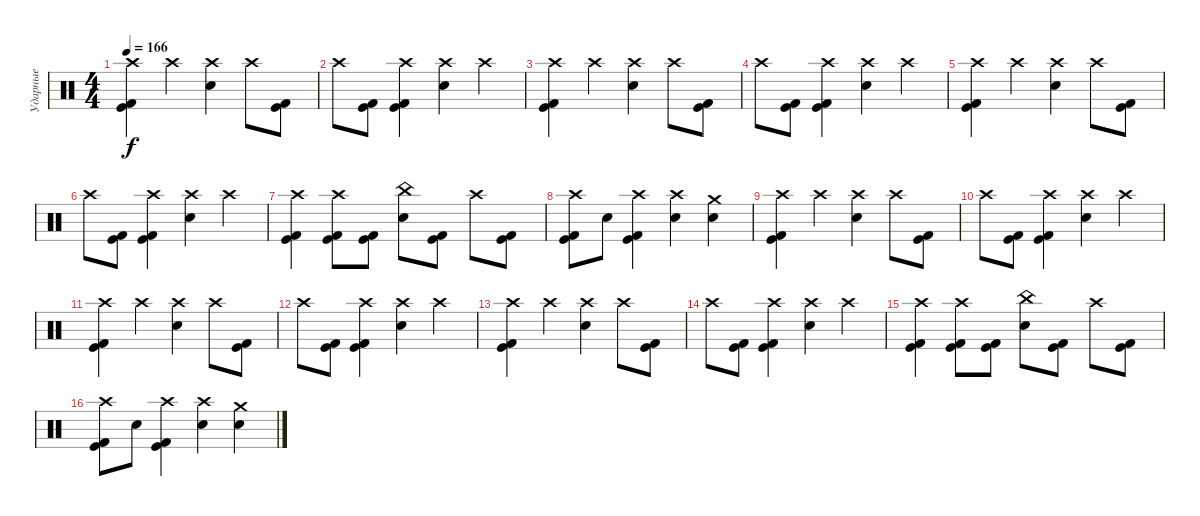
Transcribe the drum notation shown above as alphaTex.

\track ("Ударные" "Ударные") {instrument percussion}
\staff {score}
\articulation defaults
\ts (4 4)
\tempo 166
\clef neutral
\ks c
("Crash high (hit)" "Kick (hit)" "Kick (hit) 2").4{dy f} "Crash high (hit)".4 ("Crash high (hit)" "Electric Snare (hit)").4 "Crash high (hit)".8 ("Kick (hit)" "Kick (hit) 2").8 |
"Crash high (hit)".8 ("Kick (hit)" "Kick (hit) 2").8 ("Crash high (hit)" "Kick (hit)" "Kick (hit) 2").4 ("Crash high (hit)" "Electric Snare (hit)").4 "Crash high (hit)".4 |
("Crash high (hit)" "Kick (hit)" "Kick (hit) 2").4 "Crash high (hit)".4 ("Crash high (hit)" "Electric Snare (hit)").4 "Crash high (hit)".8 ("Kick (hit)" "Kick (hit) 2").8 |
"Crash high (hit)".8 ("Kick (hit)" "Kick (hit) 2").8 ("Crash high (hit)" "Kick (hit)" "Kick (hit) 2").4 ("Crash high (hit)" "Electric Snare (hit)").4 "Crash high (hit)".4 |
("Crash high (hit)" "Kick (hit)" "Kick (hit) 2").4 "Crash high (hit)".4 ("Crash high (hit)" "Electric Snare (hit)").4 "Crash high (hit)".8 ("Kick (hit)" "Kick (hit) 2").8 |
"Crash high (hit)".8 ("Kick (hit)" "Kick (hit) 2").8 ("Crash high (hit)" "Kick (hit)" "Kick (hit) 2").4 ("Crash high (hit)" "Electric Snare (hit)").4 "Crash high (hit)".4 |
("Crash high (hit)" "Kick (hit)" "Kick (hit) 2").4 ("Crash high (hit)" "Kick (hit)" "Kick (hit) 2").8 ("Kick (hit)" "Kick (hit) 2").8 ("China (hit)" "Electric Snare (hit)").8 ("Kick (hit)" "Kick (hit) 2").8 "Crash high (hit)".8 ("Kick (hit)" "Kick (hit) 2").8 |
("Crash high (hit)" "Kick (hit)" "Kick (hit) 2").8 "Electric Snare (hit)".8 ("Crash high (hit)" "Kick (hit)" "Kick (hit) 2").4 ("Crash high (hit)" "Electric Snare (hit)").4 ("Crash medium (hit)" "Electric Snare (hit)").4 |
("Crash high (hit)" "Kick (hit)" "Kick (hit) 2").4 "Crash high (hit)".4 ("Crash high (hit)" "Electric Snare (hit)").4 "Crash high (hit)".8 ("Kick (hit)" "Kick (hit) 2").8 |
"Crash high (hit)".8 ("Kick (hit)" "Kick (hit) 2").8 ("Crash high (hit)" "Kick (hit)" "Kick (hit) 2").4 ("Crash high (hit)" "Electric Snare (hit)").4 "Crash high (hit)".4 |
("Crash high (hit)" "Kick (hit)" "Kick (hit) 2").4 "Crash high (hit)".4 ("Crash high (hit)" "Electric Snare (hit)").4 "Crash high (hit)".8 ("Kick (hit)" "Kick (hit) 2").8 |
"Crash high (hit)".8 ("Kick (hit)" "Kick (hit) 2").8 ("Crash high (hit)" "Kick (hit)" "Kick (hit) 2").4 ("Crash high (hit)" "Electric Snare (hit)").4 "Crash high (hit)".4 |
("Crash high (hit)" "Kick (hit)" "Kick (hit) 2").4 "Crash high (hit)".4 ("Crash high (hit)" "Electric Snare (hit)").4 "Crash high (hit)".8 ("Kick (hit)" "Kick (hit) 2").8 |
"Crash high (hit)".8 ("Kick (hit)" "Kick (hit) 2").8 ("Crash high (hit)" "Kick (hit)" "Kick (hit) 2").4 ("Crash high (hit)" "Electric Snare (hit)").4 "Crash high (hit)".4 |
("Crash high (hit)" "Kick (hit)" "Kick (hit) 2").4 ("Crash high (hit)" "Kick (hit)" "Kick (hit) 2").8 ("Kick (hit)" "Kick (hit) 2").8 ("China (hit)" "Electric Snare (hit)").8 ("Kick (hit)" "Kick (hit) 2").8 "Crash high (hit)".8 ("Kick (hit)" "Kick (hit) 2").8 |
("Crash high (hit)" "Kick (hit)" "Kick (hit) 2").8 "Electric Snare (hit)".8 ("Crash high (hit)" "Kick (hit)" "Kick (hit) 2").4 ("Crash high (hit)" "Electric Snare (hit)").4 ("Crash medium (hit)" "Electric Snare (hit)").4
